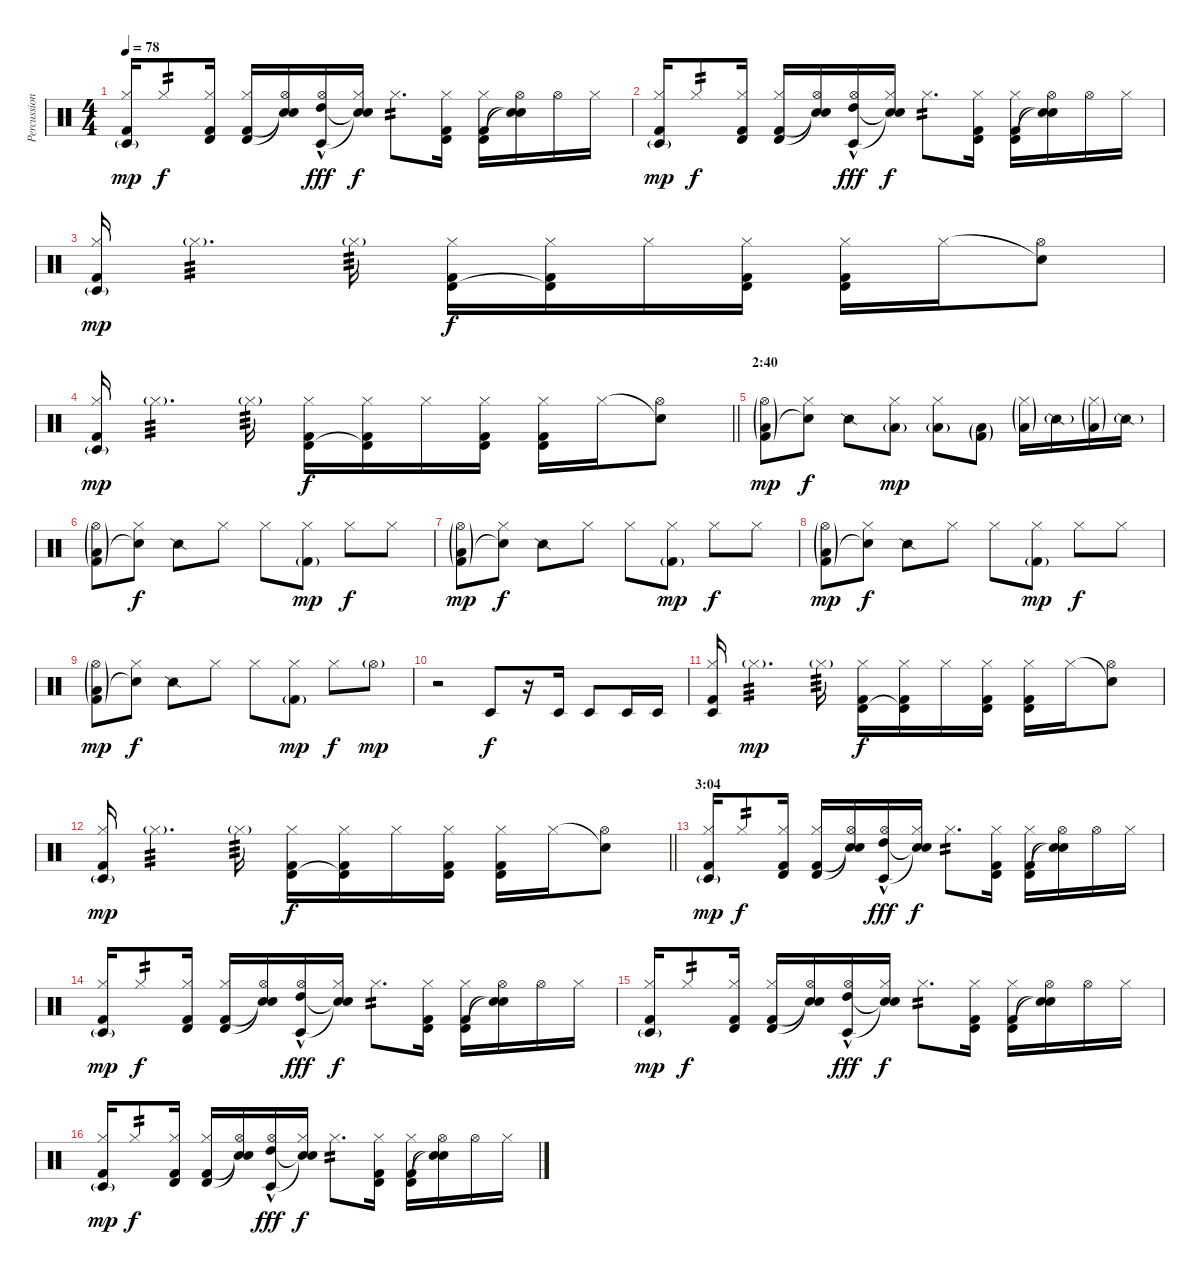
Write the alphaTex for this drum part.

\track ("Percussion" "Percussion") {instrument percussion}
\staff {score}
\articulation defaults
\ts (4 4)
\tempo 78
\clef neutral
\ks c
("Timbale low (hit)"{g} "Hi-Hat (closed)" "Kick (hit) 2").16{dy mp} "Hi-Hat (closed)".8{tp 2 dy f} ("Timbale high (hit)" "Hi-Hat (closed)" "Kick (hit) 2").16 ("Timbale high (hit)" "Hi-Hat (closed)" "Kick (hit) 2").16 ("Snare (hit)"{t} "Hi-Hat (open)" "Snare (hit)"{t}).16 ("Timbale low (hit)" "Hi-Hat (open)" "High Tom (hit)"{hac}).16{dy fff} ("Snare (hit)"{t} "Hi-Hat (closed)" "Snare (hit)"{t}).16{dy f} "Hi-Hat (closed)".8{d tp 2} ("Timbale high (hit)" "Hi-Hat (closed)" "Kick (hit) 2").16 ("Timbale high (hit)" "Hi-Hat (closed)" "Kick (hit) 2").16 ("Snare (hit)"{t} "Hi-Hat (open)" "Snare (hit)"{t}).16 "Hi-Hat (open)".16 "Hi-Hat (closed)".16 |
("Timbale low (hit)"{g} "Hi-Hat (closed)" "Kick (hit) 2").16{dy mp} "Hi-Hat (closed)".8{tp 2 dy f} ("Timbale high (hit)" "Hi-Hat (closed)" "Kick (hit) 2").16 ("Timbale high (hit)" "Hi-Hat (closed)" "Kick (hit) 2").16 ("Snare (hit)"{t} "Hi-Hat (open)" "Snare (hit)"{t}).16 ("Timbale low (hit)" "Hi-Hat (open)" "High Tom (hit)"{hac}).16{dy fff} ("Snare (hit)"{t} "Hi-Hat (closed)" "Snare (hit)"{t}).16{dy f} "Hi-Hat (closed)".8{d tp 2} ("Timbale high (hit)" "Hi-Hat (closed)" "Kick (hit) 2").16 ("Timbale high (hit)" "Hi-Hat (closed)" "Kick (hit) 2").16 ("Snare (hit)"{t} "Hi-Hat (open)" "Snare (hit)"{t}).16 "Hi-Hat (open)".16 "Hi-Hat (closed)".16 |
("Timbale low (hit)"{g} "Hi-Hat (closed)" "Kick (hit) 2").16{dy mp} "Hi-Hat (closed)"{g}.4{d tp 3} "Hi-Hat (closed)"{g}.16{tp 3} ("Timbale high (hit)" "Hi-Hat (closed)" "Kick (hit) 2").16{dy f} ("Timbale high (hit)"{t} "Hi-Hat (closed)" "Kick (hit) 2").16 "Hi-Hat (closed)".16 ("Timbale high (hit)" "Hi-Hat (closed)" "Kick (hit) 2").16 ("Timbale high (hit)" "Hi-Hat (closed)" "Kick (hit) 2").16 "Hi-Hat (closed)".16 ("Snare (hit)"{t} "Hi-Hat (open)").8 |
\barLineRight lightlight
("Timbale low (hit)"{g} "Hi-Hat (closed)" "Kick (hit) 2").16{dy mp} "Hi-Hat (closed)"{g}.4{d tp 3} "Hi-Hat (closed)"{g}.16{tp 3} ("Timbale high (hit)" "Hi-Hat (closed)" "Kick (hit) 2").16{dy f} ("Timbale high (hit)"{t} "Hi-Hat (closed)" "Kick (hit) 2").16 "Hi-Hat (closed)".16 ("Timbale high (hit)" "Hi-Hat (closed)" "Kick (hit) 2").16 ("Timbale high (hit)" "Hi-Hat (closed)" "Kick (hit) 2").16 "Hi-Hat (closed)".16 ("Snare (hit)"{t} "Hi-Hat (open)").8 |
\section ("" "2:40")
("Hi-Hat (open)"{g} "Low Floor Tom (hit)"{g} "Kick (hit) 2"{g}).8{dy mp} ("Hi-Hat (closed)" "Snare (hit)"{t}).8{dy f} "Snare (side stick) 2".8 ("Hi-Hat (closed)" "Low Floor Tom (hit)"{g}).8{dy mp} ("Hi-Hat (closed)" "Low Floor Tom (hit)"{g}).8 ("Low Floor Tom (hit)"{g} "Kick (hit) 2"{g}).8 ("Hi-Hat (closed)"{g} "Low Floor Tom (hit)"{g}).16 "Snare (side stick) 2"{g}.16 ("Hi-Hat (closed)"{g} "Low Floor Tom (hit)"{g}).16 "Snare (side stick) 2"{g}.16 |
("Hi-Hat (open)"{g} "Low Floor Tom (hit)"{g} "Kick (hit) 2"{g}).8 ("Hi-Hat (closed)" "Snare (hit)"{t}).8{dy f} "Snare (side stick) 2".8 "Hi-Hat (closed)".8 "Hi-Hat (closed)".8 ("Hi-Hat (closed)" "Kick (hit) 2"{g}).8{dy mp} "Hi-Hat (closed)".8{dy f} "Hi-Hat (closed)".8 |
("Hi-Hat (open)"{g} "Low Floor Tom (hit)"{g} "Kick (hit) 2"{g}).8{dy mp} ("Hi-Hat (closed)" "Snare (hit)"{t}).8{dy f} "Snare (side stick) 2".8 "Hi-Hat (closed)".8 "Hi-Hat (closed)".8 ("Hi-Hat (closed)" "Kick (hit) 2"{g}).8{dy mp} "Hi-Hat (closed)".8{dy f} "Hi-Hat (closed)".8 |
("Hi-Hat (open)"{g} "Low Floor Tom (hit)"{g} "Kick (hit) 2"{g}).8{dy mp} ("Hi-Hat (closed)" "Snare (hit)"{t}).8{dy f} "Snare (side stick) 2".8 "Hi-Hat (closed)".8 "Hi-Hat (closed)".8 ("Hi-Hat (closed)" "Kick (hit) 2"{g}).8{dy mp} "Hi-Hat (closed)".8{dy f} "Hi-Hat (closed)".8 |
("Hi-Hat (open)"{g} "Low Floor Tom (hit)"{g} "Kick (hit) 2"{g}).8{dy mp} ("Hi-Hat (closed)" "Snare (hit)"{t}).8{dy f} "Snare (side stick) 2".8 "Hi-Hat (closed)".8 "Hi-Hat (closed)".8 ("Hi-Hat (closed)" "Kick (hit) 2"{g}).8{dy mp} "Hi-Hat (closed)".8{dy f} "Hi-Hat (open)"{g}.8{dy mp} |
r.2 "Timbale low (hit)".8{dy f} r.16 "Timbale low (hit)".16 "Timbale low (hit)".8 "Timbale low (hit)".16 "Timbale low (hit)".16 |
("Timbale low (hit)" "Hi-Hat (closed)" "Kick (hit) 2").16 "Hi-Hat (closed)"{g}.4{d tp 3 dy mp} "Hi-Hat (closed)"{g}.16{tp 3} ("Timbale high (hit)" "Hi-Hat (closed)" "Kick (hit) 2").16{dy f} ("Timbale high (hit)"{t} "Hi-Hat (closed)" "Kick (hit) 2").16 "Hi-Hat (closed)".16 ("Timbale high (hit)" "Hi-Hat (closed)" "Kick (hit) 2").16 ("Timbale high (hit)" "Hi-Hat (closed)" "Kick (hit) 2").16 "Hi-Hat (closed)".16 ("Snare (hit)"{t} "Hi-Hat (open)").8 |
\barLineRight lightlight
("Timbale low (hit)"{g} "Hi-Hat (closed)" "Kick (hit) 2").16{dy mp} "Hi-Hat (closed)"{g}.4{d tp 3} "Hi-Hat (closed)"{g}.16{tp 3} ("Timbale high (hit)" "Hi-Hat (closed)" "Kick (hit) 2").16{dy f} ("Timbale high (hit)"{t} "Hi-Hat (closed)" "Kick (hit) 2").16 "Hi-Hat (closed)".16 ("Timbale high (hit)" "Hi-Hat (closed)" "Kick (hit) 2").16 ("Timbale high (hit)" "Hi-Hat (closed)" "Kick (hit) 2").16 "Hi-Hat (closed)".16 ("Snare (hit)"{t} "Hi-Hat (open)").8 |
\section ("" "3:04")
("Timbale low (hit)"{g} "Hi-Hat (closed)" "Kick (hit) 2").16{dy mp} "Hi-Hat (closed)".8{tp 2 dy f} ("Timbale high (hit)" "Hi-Hat (closed)" "Kick (hit) 2").16 ("Timbale high (hit)" "Hi-Hat (closed)" "Kick (hit) 2").16 ("Snare (hit)"{t} "Hi-Hat (open)" "Snare (hit)"{t}).16 ("Timbale low (hit)" "Hi-Hat (open)" "High Tom (hit)"{hac}).16{dy fff} ("Snare (hit)"{t} "Hi-Hat (closed)" "Snare (hit)"{t}).16{dy f} "Hi-Hat (closed)".8{d tp 2} ("Timbale high (hit)" "Hi-Hat (closed)" "Kick (hit) 2").16 ("Timbale high (hit)" "Hi-Hat (closed)" "Kick (hit) 2").16 ("Snare (hit)"{t} "Hi-Hat (open)" "Snare (hit)"{t}).16 "Hi-Hat (open)".16 "Hi-Hat (closed)".16 |
("Timbale low (hit)"{g} "Hi-Hat (closed)" "Kick (hit) 2").16{dy mp} "Hi-Hat (closed)".8{tp 2 dy f} ("Timbale high (hit)" "Hi-Hat (closed)" "Kick (hit) 2").16 ("Timbale high (hit)" "Hi-Hat (closed)" "Kick (hit) 2").16 ("Snare (hit)"{t} "Hi-Hat (open)" "Snare (hit)"{t}).16 ("Timbale low (hit)" "Hi-Hat (open)" "High Tom (hit)"{hac}).16{dy fff} ("Snare (hit)"{t} "Hi-Hat (closed)" "Snare (hit)"{t}).16{dy f} "Hi-Hat (closed)".8{d tp 2} ("Timbale high (hit)" "Hi-Hat (closed)" "Kick (hit) 2").16 ("Timbale high (hit)" "Hi-Hat (closed)" "Kick (hit) 2").16 ("Snare (hit)"{t} "Hi-Hat (open)" "Snare (hit)"{t}).16 "Hi-Hat (open)".16 "Hi-Hat (closed)".16 |
("Timbale low (hit)"{g} "Hi-Hat (closed)" "Kick (hit) 2").16{dy mp} "Hi-Hat (closed)".8{tp 2 dy f} ("Timbale high (hit)" "Hi-Hat (closed)" "Kick (hit) 2").16 ("Timbale high (hit)" "Hi-Hat (closed)" "Kick (hit) 2").16 ("Snare (hit)"{t} "Hi-Hat (open)" "Snare (hit)"{t}).16 ("Timbale low (hit)" "Hi-Hat (open)" "High Tom (hit)"{hac}).16{dy fff} ("Snare (hit)"{t} "Hi-Hat (closed)" "Snare (hit)"{t}).16{dy f} "Hi-Hat (closed)".8{d tp 2} ("Timbale high (hit)" "Hi-Hat (closed)" "Kick (hit) 2").16 ("Timbale high (hit)" "Hi-Hat (closed)" "Kick (hit) 2").16 ("Snare (hit)"{t} "Hi-Hat (open)" "Snare (hit)"{t}).16 "Hi-Hat (open)".16 "Hi-Hat (closed)".16 |
("Timbale low (hit)"{g} "Hi-Hat (closed)" "Kick (hit) 2").16{dy mp} "Hi-Hat (closed)".8{tp 2 dy f} ("Timbale high (hit)" "Hi-Hat (closed)" "Kick (hit) 2").16 ("Timbale high (hit)" "Hi-Hat (closed)" "Kick (hit) 2").16 ("Snare (hit)"{t} "Hi-Hat (open)" "Snare (hit)"{t}).16 ("Timbale low (hit)" "Hi-Hat (open)" "High Tom (hit)"{hac}).16{dy fff} ("Snare (hit)"{t} "Hi-Hat (closed)" "Snare (hit)"{t}).16{dy f} "Hi-Hat (closed)".8{d tp 2} ("Timbale high (hit)" "Hi-Hat (closed)" "Kick (hit) 2").16 ("Timbale high (hit)" "Hi-Hat (closed)" "Kick (hit) 2").16 ("Snare (hit)"{t} "Hi-Hat (open)" "Snare (hit)"{t}).16 "Hi-Hat (open)".16 "Hi-Hat (closed)".16
